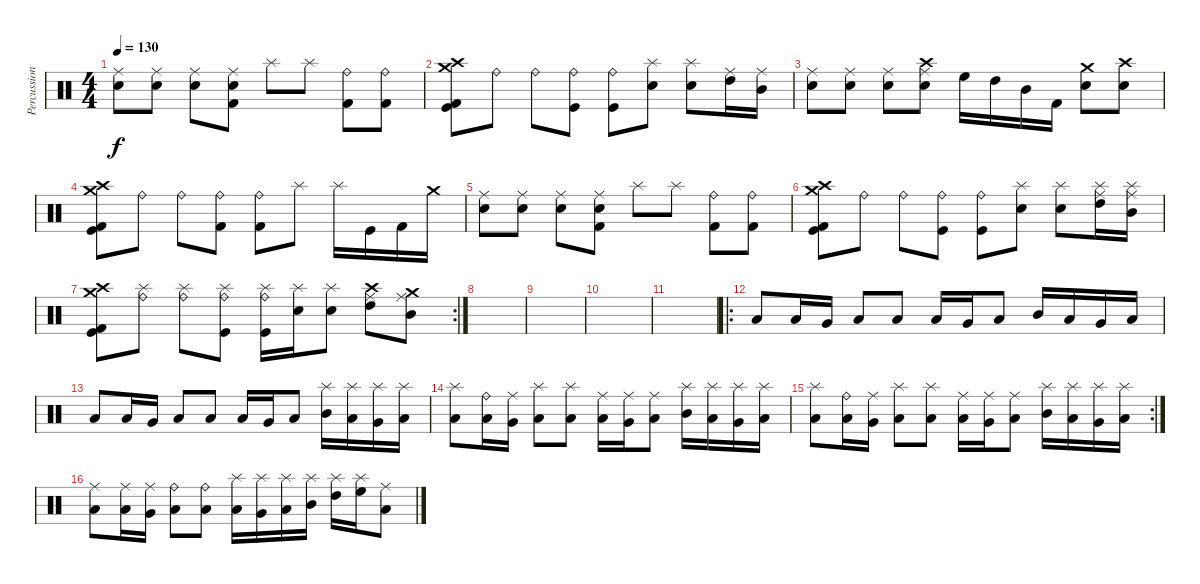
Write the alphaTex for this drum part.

\track ("Percussion" "Percussion") {instrument percussion}
\staff {score}
\articulation defaults
\ts (4 4)
\tempo 130
\clef neutral
\ks c
("Ride (middle)" "Electric Snare (hit)").8{dy f} ("Ride (middle)" "Electric Snare (hit)").8 ("Ride (middle)" "Electric Snare (hit)").8 ("Ride (middle)" "Snare (hit) 2" "Kick (hit) 2").8 "Splash (hit)".8 "Splash (hit)".8 ("Ride (bell)" "Kick (hit) 2").8 ("Ride (bell)" "Kick (hit) 2").8 |
("Crash high (hit)" "Crash medium (hit)" "Kick (hit)" "Kick (hit) 2").8 "Ride (bell)".8 "Ride (bell)".8 ("Ride (bell)" "Kick (hit)").8 ("Ride (bell)" "Kick (hit)").8 ("Splash (hit)" "Electric Snare (hit)").8 ("Splash (hit)" "Electric Snare (hit)").8 ("Ride (middle)" "High Tom (hit)").16 ("Ride (middle)" "Mid Tom (hit)").16 |
("Ride (middle)" "Electric Snare (hit)").8 ("Ride (middle)" "Electric Snare (hit)").8 ("Ride (middle)" "Electric Snare (hit)").8 ("Ride (middle)" "Crash high (hit)" "Snare (hit) 2").8 "High Floor Tom (hit)".16 "High Tom (hit)".16 "Mid Tom (hit)".16 "Kick (hit) 2".16 ("Electric Snare (hit)" "Crash medium (hit)").8 ("Snare (hit) 2" "Crash high (hit)").8 |
("Crash high (hit)" "Crash medium (hit)" "Kick (hit)" "Kick (hit) 2").8 "Ride (bell)".8 "Ride (bell)".8 ("Ride (bell)" "Kick (hit) 2").8 ("Ride (bell)" "Kick (hit) 2").8 "Splash (hit)".8 "Splash (hit)".16 "Kick (hit)".16 "Kick (hit) 2".16 "Crash medium (hit)".16 |
("Ride (middle)" "Electric Snare (hit)").8 ("Ride (middle)" "Electric Snare (hit)").8 ("Ride (middle)" "Electric Snare (hit)").8 ("Ride (middle)" "Snare (hit) 2" "Kick (hit) 2").8 "Splash (hit)".8 "Splash (hit)".8 ("Ride (bell)" "Kick (hit) 2").8 ("Ride (bell)" "Kick (hit) 2").8 |
("Crash high (hit)" "Crash medium (hit)" "Kick (hit)" "Kick (hit) 2").8 "Ride (bell)".8 "Ride (bell)".8 ("Ride (bell)" "Kick (hit)").8 ("Ride (bell)" "Kick (hit)").8 ("Splash (hit)" "Electric Snare (hit)").8 ("Splash (hit)" "Electric Snare (hit)").8 ("Ride (middle)" "High Tom (hit)" "Splash (hit)").16 ("Ride (middle)" "Mid Tom (hit)" "Splash (hit)").16 |
\rc 2
("Crash high (hit)" "Crash medium (hit)" "Kick (hit)" "Kick (hit) 2").8 ("Ride (bell)" "Splash (hit)").8 ("Ride (bell)" "Splash (hit)").8 ("Ride (bell)" "Kick (hit)" "Splash (hit)").8 ("Ride (bell)" "Kick (hit)" "Splash (hit)").16 ("Splash (hit)" "Electric Snare (hit)").16 ("Splash (hit)" "Electric Snare (hit)").8 ("Ride (middle)" "High Tom (hit)" "Crash high (hit)").8 ("Ride (middle)" "Mid Tom (hit)" "Crash medium (hit)").8 |
|
|
|
|
\ro "Low Floor Tom (hit)".8 "Low Tom (hit)".16 "Very Low Tom (hit)".16 "Low Floor Tom (hit)".8 "Low Floor Tom (hit)".8 "Low Tom (hit)".16 "Very Low Tom (hit)".16 "Low Floor Tom (hit)".8 "Mid Tom (hit)".16 "Low Tom (hit)".16 "Very Low Tom (hit)".16 "Low Floor Tom (hit)".16
|
"Low Floor Tom (hit)".8 "Low Tom (hit)".16 "Very Low Tom (hit)".16 "Low Floor Tom (hit)".8 "Low Floor Tom (hit)".8 "Low Tom (hit)".16 "Very Low Tom (hit)".16 "Low Floor Tom (hit)".8 ("Mid Tom (hit)" "Splash (hit)").16 ("Low Tom (hit)" "Splash (hit)").16 ("Very Low Tom (hit)" "Splash (hit)").16 ("Low Floor Tom (hit)" "Splash (hit)").16 |
("Low Floor Tom (hit)" "Splash (hit)").8 ("Low Tom (hit)" "Ride (bell)").16 ("Very Low Tom (hit)" "Ride (middle)").16 ("Low Floor Tom (hit)" "Splash (hit)").8 ("Low Floor Tom (hit)" "Splash (hit)").8 ("Low Tom (hit)" "Ride (middle)").16 ("Very Low Tom (hit)" "Ride (middle)").16 ("Low Floor Tom (hit)" "Ride (middle)").8 ("Mid Tom (hit)" "Splash (hit)").16 ("Low Tom (hit)" "Splash (hit)").16 ("Very Low Tom (hit)" "Splash (hit)").16 ("Low Floor Tom (hit)" "Splash (hit)").16 |
\rc 2
("Low Floor Tom (hit)" "Splash (hit)").8 ("Low Tom (hit)" "Ride (bell)").16 ("Very Low Tom (hit)" "Ride (middle)").16 ("Low Floor Tom (hit)" "Splash (hit)").8 ("Low Floor Tom (hit)" "Splash (hit)").8 ("Low Tom (hit)" "Ride (middle)").16 ("Very Low Tom (hit)" "Ride (middle)").16 ("Low Floor Tom (hit)" "Ride (middle)").8 ("Mid Tom (hit)" "Splash (hit)").16 ("Low Tom (hit)" "Splash (hit)").16 ("Very Low Tom (hit)" "Splash (hit)").16 ("Low Floor Tom (hit)" "Splash (hit)").16 |
("Ride (middle)" "Low Floor Tom (hit)").8 ("Ride (middle)" "Low Tom (hit)").16 ("Ride (middle)" "Very Low Tom (hit)").16 ("Ride (bell)" "Low Floor Tom (hit)").8 ("Ride (bell)" "Low Floor Tom (hit)").8 ("Splash (hit)" "Low Floor Tom (hit)").16 ("Splash (hit)" "Very Low Tom (hit)").16 ("Splash (hit)" "Low Tom (hit)").16 ("Splash (hit)" "Mid Tom (hit)").16 ("Splash (hit)" "High Tom (hit)").16 ("Splash (hit)" "High Floor Tom (hit)").16 ("Ride (middle)" "Low Floor Tom (hit)").8
